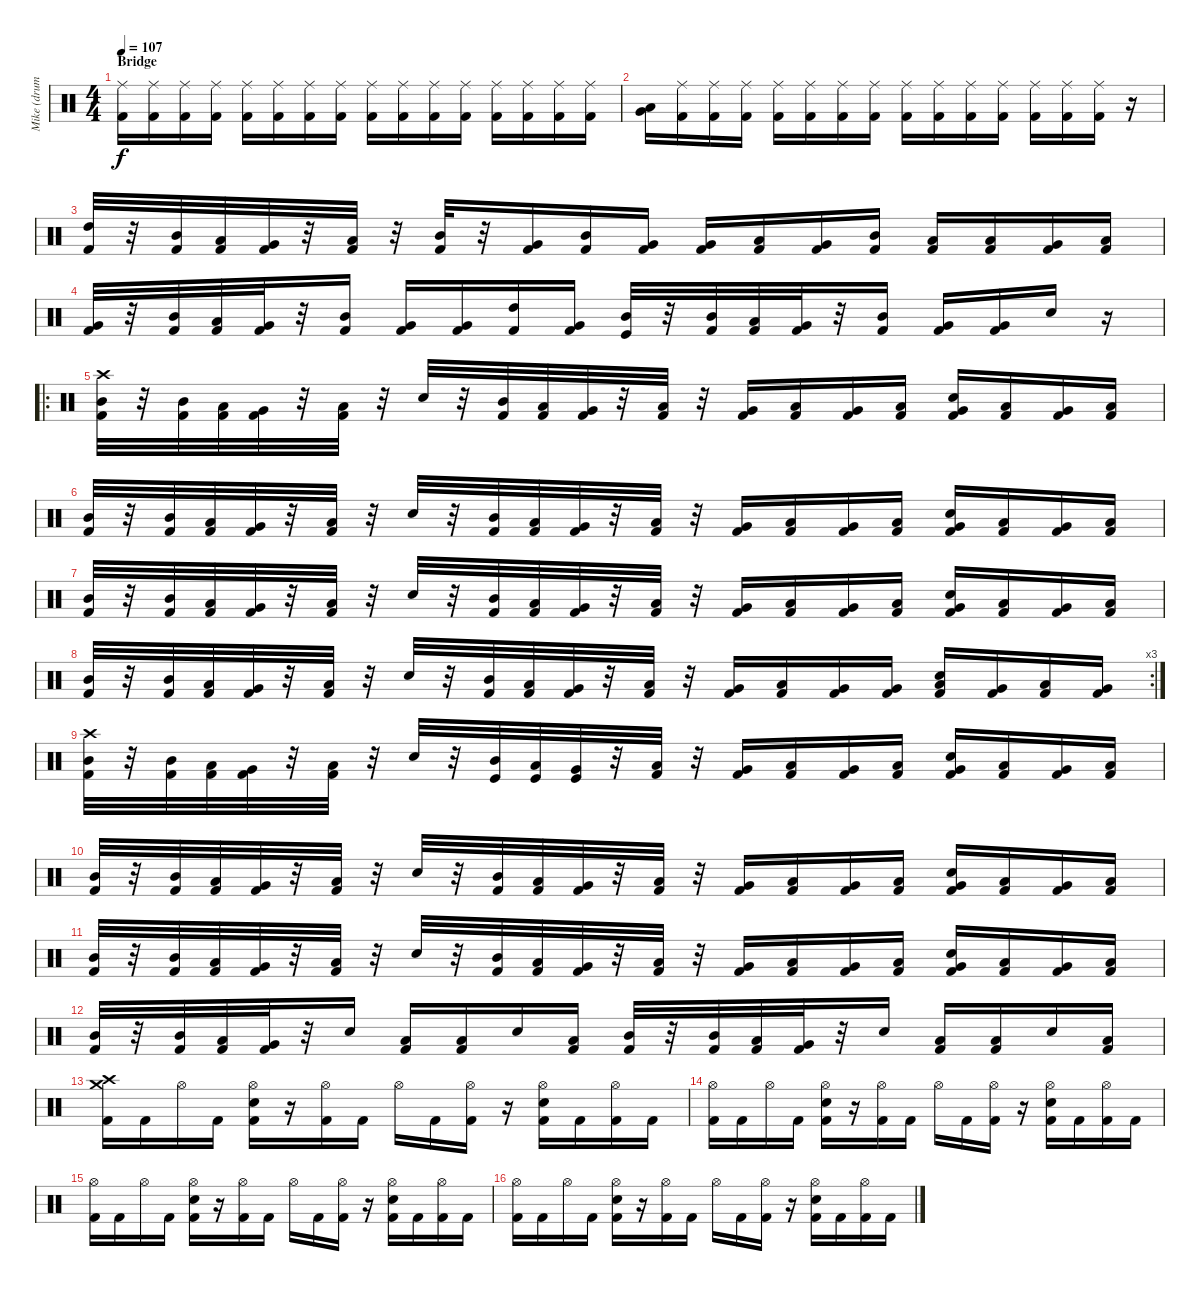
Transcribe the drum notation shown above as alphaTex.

\track ("Mike (drums)" "Mike (drum") {instrument percussion}
\staff {score}
\articulation defaults
\ts (4 4)
\section ("" "Bridge")
\tempo 107
\clef neutral
\ks c
("Ride (middle)" "Kick (hit) 2").16{dy f} ("Ride (middle)" "Kick (hit) 2").16 ("Ride (middle)" "Kick (hit) 2").16 ("Ride (middle)" "Kick (hit) 2").16 ("Ride (middle)" "Kick (hit) 2").16 ("Ride (middle)" "Kick (hit) 2").16 ("Ride (middle)" "Kick (hit) 2").16 ("Ride (middle)" "Kick (hit) 2").16 ("Ride (middle)" "Kick (hit) 2").16 ("Ride (middle)" "Kick (hit) 2").16 ("Ride (middle)" "Kick (hit) 2").16 ("Ride (middle)" "Kick (hit) 2").16 ("Ride (middle)" "Kick (hit) 2").16 ("Ride (middle)" "Kick (hit) 2").16 ("Ride (middle)" "Kick (hit) 2").16 ("Ride (middle)" "Kick (hit) 2").16 |
("Very Low Tom (hit)" "Low Floor Tom (hit)").16 ("Ride (middle)" "Kick (hit) 2").16 ("Ride (middle)" "Kick (hit) 2").16 ("Ride (middle)" "Kick (hit) 2").16 ("Ride (middle)" "Kick (hit) 2").16 ("Ride (middle)" "Kick (hit) 2").16 ("Ride (middle)" "Kick (hit) 2").16 ("Ride (middle)" "Kick (hit) 2").16 ("Ride (middle)" "Kick (hit) 2").16 ("Ride (middle)" "Kick (hit) 2").16 ("Ride (middle)" "Kick (hit) 2").16 ("Ride (middle)" "Kick (hit) 2").16 ("Ride (middle)" "Kick (hit) 2").16 ("Ride (middle)" "Kick (hit) 2").16 ("Ride (middle)" "Kick (hit) 2").16 r.16 |
("High Tom (hit)" "Kick (hit) 2").32 r.32 ("Mid Tom (hit)" "Kick (hit) 2").32 ("Low Tom (hit)" "Kick (hit) 2").32 ("Very Low Tom (hit)" "Kick (hit) 2").32 r.32 ("Low Floor Tom (hit)" "Kick (hit) 2").32 r.32 ("Mid Tom (hit)" "Kick (hit) 2").32 r.32 ("Very Low Tom (hit)" "Kick (hit) 2").16 ("Mid Tom (hit)" "Kick (hit) 2").16 ("Very Low Tom (hit)" "Kick (hit) 2").16 ("Very Low Tom (hit)" "Kick (hit) 2").16 ("Low Floor Tom (hit)" "Kick (hit) 2").16 ("Very Low Tom (hit)" "Kick (hit) 2").16 ("Mid Tom (hit)" "Kick (hit) 2").16 ("Low Floor Tom (hit)" "Kick (hit) 2").16 ("Low Floor Tom (hit)" "Kick (hit) 2").16 ("Very Low Tom (hit)" "Kick (hit) 2").16 ("Low Floor Tom (hit)" "Kick (hit) 2").16 |
("Very Low Tom (hit)" "Kick (hit) 2").32 r.32 ("Mid Tom (hit)" "Kick (hit) 2").32 ("Low Tom (hit)" "Kick (hit) 2").32 ("Very Low Tom (hit)" "Kick (hit) 2").32 r.32 ("Mid Tom (hit)" "Kick (hit) 2").16 ("Very Low Tom (hit)" "Kick (hit) 2").16 ("Very Low Tom (hit)" "Kick (hit) 2").16 ("High Tom (hit)" "Kick (hit) 2").16 ("Very Low Tom (hit)" "Kick (hit) 2").16 ("Mid Tom (hit)" "Kick (hit)").32 r.32 ("Mid Tom (hit)" "Kick (hit) 2").32 ("Low Tom (hit)" "Kick (hit) 2").32 ("Very Low Tom (hit)" "Kick (hit) 2").32 r.32 ("Mid Tom (hit)" "Kick (hit) 2").16 ("Very Low Tom (hit)" "Kick (hit) 2").16 ("Very Low Tom (hit)" "Kick (hit) 2").16 "Electric Snare (hit)".16 r.16 |
\ro
("Crash high (hit)" "Mid Tom (hit)" "Kick (hit) 2").32 r.32 ("Mid Tom (hit)" "Kick (hit) 2").32 ("Low Tom (hit)" "Kick (hit) 2").32 ("Very Low Tom (hit)" "Kick (hit) 2").32 r.32 ("Low Floor Tom (hit)" "Kick (hit) 2").32 r.32 "Electric Snare (hit)".32 r.32 ("Mid Tom (hit)" "Kick (hit) 2").32 ("Low Tom (hit)" "Kick (hit) 2").32 ("Very Low Tom (hit)" "Kick (hit) 2").32 r.32 ("Low Floor Tom (hit)" "Kick (hit) 2").32 r.32 ("Very Low Tom (hit)" "Kick (hit) 2").16 ("Low Tom (hit)" "Kick (hit) 2").16 ("Very Low Tom (hit)" "Kick (hit) 2").16 ("Low Tom (hit)" "Kick (hit) 2").16 ("Electric Snare (hit)" "Very Low Tom (hit)" "Kick (hit) 2").16 ("Low Tom (hit)" "Kick (hit) 2").16 ("Very Low Tom (hit)" "Kick (hit) 2").16 ("Low Floor Tom (hit)" "Kick (hit) 2").16 |
("Mid Tom (hit)" "Kick (hit) 2").32 r.32 ("Mid Tom (hit)" "Kick (hit) 2").32 ("Low Tom (hit)" "Kick (hit) 2").32 ("Very Low Tom (hit)" "Kick (hit) 2").32 r.32 ("Low Floor Tom (hit)" "Kick (hit) 2").32 r.32 "Electric Snare (hit)".32 r.32 ("Mid Tom (hit)" "Kick (hit) 2").32 ("Low Tom (hit)" "Kick (hit) 2").32 ("Very Low Tom (hit)" "Kick (hit) 2").32 r.32 ("Low Floor Tom (hit)" "Kick (hit) 2").32 r.32 ("Very Low Tom (hit)" "Kick (hit) 2").16 ("Low Tom (hit)" "Kick (hit) 2").16 ("Very Low Tom (hit)" "Kick (hit) 2").16 ("Low Tom (hit)" "Kick (hit) 2").16 ("Electric Snare (hit)" "Very Low Tom (hit)" "Kick (hit) 2").16 ("Low Tom (hit)" "Kick (hit) 2").16 ("Very Low Tom (hit)" "Kick (hit) 2").16 ("Low Tom (hit)" "Kick (hit) 2").16 |
("Mid Tom (hit)" "Kick (hit) 2").32 r.32 ("Mid Tom (hit)" "Kick (hit) 2").32 ("Low Tom (hit)" "Kick (hit) 2").32 ("Very Low Tom (hit)" "Kick (hit) 2").32 r.32 ("Low Floor Tom (hit)" "Kick (hit) 2").32 r.32 "Electric Snare (hit)".32 r.32 ("Mid Tom (hit)" "Kick (hit) 2").32 ("Low Tom (hit)" "Kick (hit) 2").32 ("Very Low Tom (hit)" "Kick (hit) 2").32 r.32 ("Low Floor Tom (hit)" "Kick (hit) 2").32 r.32 ("Very Low Tom (hit)" "Kick (hit) 2").16 ("Low Tom (hit)" "Kick (hit) 2").16 ("Very Low Tom (hit)" "Kick (hit) 2").16 ("Low Tom (hit)" "Kick (hit) 2").16 ("Electric Snare (hit)" "Very Low Tom (hit)" "Kick (hit) 2").16 ("Low Tom (hit)" "Kick (hit) 2").16 ("Very Low Tom (hit)" "Kick (hit) 2").16 ("Low Tom (hit)" "Kick (hit) 2").16 |
\rc 3
("Mid Tom (hit)" "Kick (hit) 2").32 r.32 ("Mid Tom (hit)" "Kick (hit) 2").32 ("Low Tom (hit)" "Kick (hit) 2").32 ("Very Low Tom (hit)" "Kick (hit) 2").32 r.32 ("Low Floor Tom (hit)" "Kick (hit) 2").32 r.32 "Electric Snare (hit)".32 r.32 ("Mid Tom (hit)" "Kick (hit) 2").32 ("Low Tom (hit)" "Kick (hit) 2").32 ("Very Low Tom (hit)" "Kick (hit) 2").32 r.32 ("Low Floor Tom (hit)" "Kick (hit) 2").32 r.32 ("Very Low Tom (hit)" "Kick (hit) 2").16 ("Low Tom (hit)" "Kick (hit) 2").16 ("Very Low Tom (hit)" "Kick (hit) 2").16 ("Very Low Tom (hit)" "Kick (hit) 2").16 ("Electric Snare (hit)" "Low Tom (hit)" "Kick (hit) 2").16 ("Very Low Tom (hit)" "Kick (hit) 2").16 ("Low Tom (hit)" "Kick (hit) 2").16 ("Very Low Tom (hit)" "Kick (hit) 2").16 |
("Crash high (hit)" "Mid Tom (hit)" "Kick (hit) 2").32 r.32 ("Mid Tom (hit)" "Kick (hit) 2").32 ("Low Tom (hit)" "Kick (hit) 2").32 ("Very Low Tom (hit)" "Kick (hit) 2").32 r.32 ("Low Floor Tom (hit)" "Kick (hit) 2").32 r.32 "Electric Snare (hit)".32 r.32 ("Mid Tom (hit)" "Kick (hit)").32 ("Low Tom (hit)" "Kick (hit)").32 ("Very Low Tom (hit)" "Kick (hit)").32 r.32 ("Low Floor Tom (hit)" "Kick (hit) 2").32 r.32 ("Very Low Tom (hit)" "Kick (hit) 2").16 ("Low Tom (hit)" "Kick (hit) 2").16 ("Very Low Tom (hit)" "Kick (hit) 2").16 ("Low Tom (hit)" "Kick (hit) 2").16 ("Electric Snare (hit)" "Very Low Tom (hit)" "Kick (hit) 2").16 ("Low Tom (hit)" "Kick (hit) 2").16 ("Very Low Tom (hit)" "Kick (hit) 2").16 ("Low Tom (hit)" "Kick (hit) 2").16 |
("Mid Tom (hit)" "Kick (hit) 2").32 r.32 ("Mid Tom (hit)" "Kick (hit) 2").32 ("Low Tom (hit)" "Kick (hit) 2").32 ("Very Low Tom (hit)" "Kick (hit) 2").32 r.32 ("Low Floor Tom (hit)" "Kick (hit) 2").32 r.32 "Electric Snare (hit)".32 r.32 ("Mid Tom (hit)" "Kick (hit) 2").32 ("Low Tom (hit)" "Kick (hit) 2").32 ("Very Low Tom (hit)" "Kick (hit) 2").32 r.32 ("Low Floor Tom (hit)" "Kick (hit) 2").32 r.32 ("Very Low Tom (hit)" "Kick (hit) 2").16 ("Low Tom (hit)" "Kick (hit) 2").16 ("Very Low Tom (hit)" "Kick (hit) 2").16 ("Low Tom (hit)" "Kick (hit) 2").16 ("Electric Snare (hit)" "Very Low Tom (hit)" "Kick (hit) 2").16 ("Low Tom (hit)" "Kick (hit) 2").16 ("Very Low Tom (hit)" "Kick (hit) 2").16 ("Low Tom (hit)" "Kick (hit) 2").16 |
("Mid Tom (hit)" "Kick (hit) 2").32 r.32 ("Mid Tom (hit)" "Kick (hit) 2").32 ("Low Tom (hit)" "Kick (hit) 2").32 ("Very Low Tom (hit)" "Kick (hit) 2").32 r.32 ("Low Floor Tom (hit)" "Kick (hit) 2").32 r.32 "Electric Snare (hit)".32 r.32 ("Mid Tom (hit)" "Kick (hit) 2").32 ("Low Tom (hit)" "Kick (hit) 2").32 ("Very Low Tom (hit)" "Kick (hit) 2").32 r.32 ("Low Floor Tom (hit)" "Kick (hit) 2").32 r.32 ("Very Low Tom (hit)" "Kick (hit) 2").16 ("Low Tom (hit)" "Kick (hit) 2").16 ("Very Low Tom (hit)" "Kick (hit) 2").16 ("Low Tom (hit)" "Kick (hit) 2").16 ("Electric Snare (hit)" "Very Low Tom (hit)" "Kick (hit) 2").16 ("Low Tom (hit)" "Kick (hit) 2").16 ("Very Low Tom (hit)" "Kick (hit) 2").16 ("Low Tom (hit)" "Kick (hit) 2").16 |
("Mid Tom (hit)" "Kick (hit) 2").32 r.32 ("Mid Tom (hit)" "Kick (hit) 2").32 ("Low Tom (hit)" "Kick (hit) 2").32 ("Very Low Tom (hit)" "Kick (hit) 2").32 r.32 "Electric Snare (hit)".16 ("Low Floor Tom (hit)" "Kick (hit) 2").16 ("Low Floor Tom (hit)" "Kick (hit) 2").16 "Electric Snare (hit)".16 ("Low Floor Tom (hit)" "Kick (hit) 2").16 ("Mid Tom (hit)" "Kick (hit) 2").32 r.32 ("Mid Tom (hit)" "Kick (hit) 2").32 ("Low Tom (hit)" "Kick (hit) 2").32 ("Very Low Tom (hit)" "Kick (hit) 2").32 r.32 "Electric Snare (hit)".16 ("Low Floor Tom (hit)" "Kick (hit) 2").16 ("Low Floor Tom (hit)" "Kick (hit) 2").16 "Electric Snare (hit)".16 ("Low Floor Tom (hit)" "Kick (hit) 2").16 |
("Crash high (hit)" "Crash medium (hit)" "Kick (hit) 2").16 "Kick (hit) 2".16 "Hi-Hat (open)".16 "Kick (hit) 2".16 ("Hi-Hat (open)" "Electric Snare (hit)" "Kick (hit) 2").16 r.16 ("Hi-Hat (open)" "Kick (hit) 2").16 "Kick (hit) 2".16 "Hi-Hat (open)".16 "Kick (hit) 2".16 ("Hi-Hat (open)" "Kick (hit) 2").16 r.16 ("Hi-Hat (open)" "Electric Snare (hit)" "Kick (hit) 2").16 "Kick (hit) 2".16 ("Hi-Hat (open)" "Kick (hit) 2").16 "Kick (hit) 2".16 |
("Hi-Hat (open)" "Kick (hit) 2").16 "Kick (hit) 2".16 "Hi-Hat (open)".16 "Kick (hit) 2".16 ("Hi-Hat (open)" "Electric Snare (hit)" "Kick (hit) 2").16 r.16 ("Hi-Hat (open)" "Kick (hit) 2").16 "Kick (hit) 2".16 "Hi-Hat (open)".16 "Kick (hit) 2".16 ("Hi-Hat (open)" "Kick (hit) 2").16 r.16 ("Hi-Hat (open)" "Electric Snare (hit)" "Kick (hit) 2").16 "Kick (hit) 2".16 ("Hi-Hat (open)" "Kick (hit) 2").16 "Kick (hit) 2".16 |
("Hi-Hat (open)" "Kick (hit) 2").16 "Kick (hit) 2".16 "Hi-Hat (open)".16 "Kick (hit) 2".16 ("Hi-Hat (open)" "Electric Snare (hit)" "Kick (hit) 2").16 r.16 ("Hi-Hat (open)" "Kick (hit) 2").16 "Kick (hit) 2".16 "Hi-Hat (open)".16 "Kick (hit) 2".16 ("Hi-Hat (open)" "Kick (hit) 2").16 r.16 ("Hi-Hat (open)" "Electric Snare (hit)" "Kick (hit) 2").16 "Kick (hit) 2".16 ("Hi-Hat (open)" "Kick (hit) 2").16 "Kick (hit) 2".16 |
("Hi-Hat (open)" "Kick (hit) 2").16 "Kick (hit) 2".16 "Hi-Hat (open)".16 "Kick (hit) 2".16 ("Hi-Hat (open)" "Electric Snare (hit)" "Kick (hit) 2").16 r.16 ("Hi-Hat (open)" "Kick (hit) 2").16 "Kick (hit) 2".16 "Hi-Hat (open)".16 "Kick (hit) 2".16 ("Hi-Hat (open)" "Kick (hit) 2").16 r.16 ("Hi-Hat (open)" "Electric Snare (hit)" "Kick (hit) 2").16 "Kick (hit) 2".16 ("Hi-Hat (open)" "Kick (hit) 2").16 "Kick (hit) 2".16
